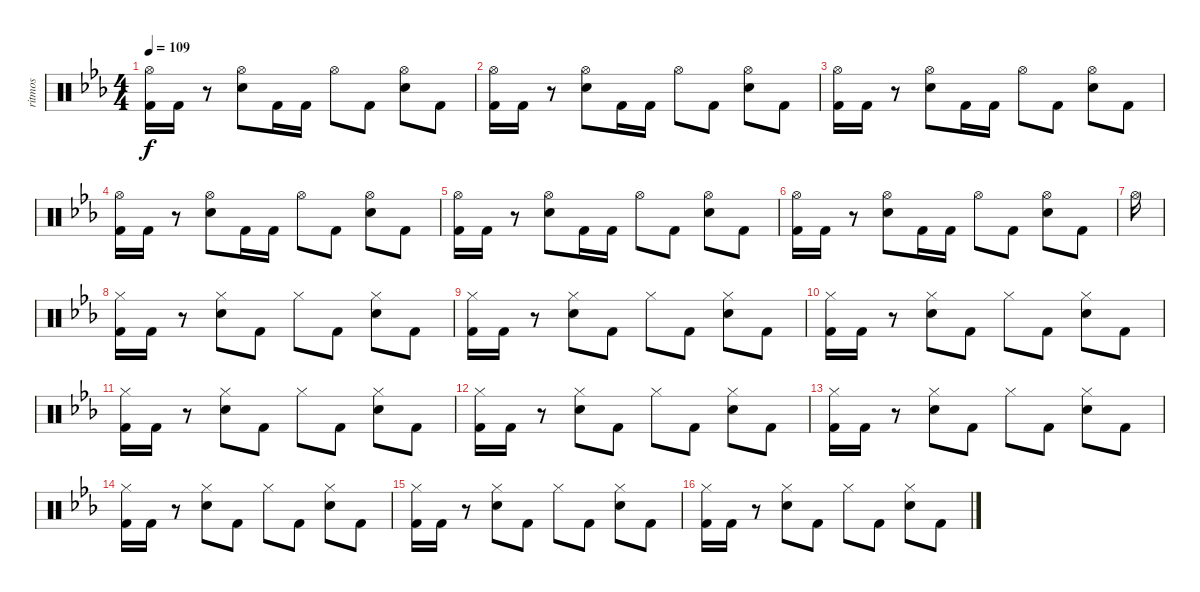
\track ("ritmos" "ritmos") {instrument percussion}
\staff {score}
\articulation defaults
\ts (4 4)
\tempo 109
\clef neutral
\ks eb
("Hi-Hat (open)" "Kick (hit) 2").16{dy f} "Kick (hit) 2".16 r.8 ("Hi-Hat (open)" "Electric Snare (hit)").8 "Kick (hit) 2".16 "Kick (hit) 2".16 "Hi-Hat (open)".8 "Kick (hit) 2".8 ("Hi-Hat (open)" "Electric Snare (hit)").8 "Kick (hit) 2".8 |
("Hi-Hat (open)" "Kick (hit) 2").16 "Kick (hit) 2".16 r.8 ("Hi-Hat (open)" "Electric Snare (hit)").8 "Kick (hit) 2".16 "Kick (hit) 2".16 "Hi-Hat (open)".8 "Kick (hit) 2".8 ("Hi-Hat (open)" "Electric Snare (hit)").8 "Kick (hit) 2".8 |
("Hi-Hat (open)" "Kick (hit) 2").16 "Kick (hit) 2".16 r.8 ("Hi-Hat (open)" "Electric Snare (hit)").8 "Kick (hit) 2".16 "Kick (hit) 2".16 "Hi-Hat (open)".8 "Kick (hit) 2".8 ("Hi-Hat (open)" "Electric Snare (hit)").8 "Kick (hit) 2".8 |
("Hi-Hat (open)" "Kick (hit) 2").16 "Kick (hit) 2".16 r.8 ("Hi-Hat (open)" "Electric Snare (hit)").8 "Kick (hit) 2".16 "Kick (hit) 2".16 "Hi-Hat (open)".8 "Kick (hit) 2".8 ("Hi-Hat (open)" "Electric Snare (hit)").8 "Kick (hit) 2".8 |
("Hi-Hat (open)" "Kick (hit) 2").16 "Kick (hit) 2".16 r.8 ("Hi-Hat (open)" "Electric Snare (hit)").8 "Kick (hit) 2".16 "Kick (hit) 2".16 "Hi-Hat (open)".8 "Kick (hit) 2".8 ("Hi-Hat (open)" "Electric Snare (hit)").8 "Kick (hit) 2".8 |
("Hi-Hat (open)" "Kick (hit) 2").16 "Kick (hit) 2".16 r.8 ("Hi-Hat (open)" "Electric Snare (hit)").8 "Kick (hit) 2".16 "Kick (hit) 2".16 "Hi-Hat (open)".8 "Kick (hit) 2".8 ("Hi-Hat (open)" "Electric Snare (hit)").8 "Kick (hit) 2".8 |
"Hi-Hat (open)".16 |
("Hi-Hat (closed)" "Kick (hit) 2").16 "Kick (hit) 2".16 r.8 ("Hi-Hat (closed)" "Electric Snare (hit)").8 "Kick (hit) 2".8 "Hi-Hat (closed)".8 "Kick (hit) 2".8 ("Hi-Hat (closed)" "Electric Snare (hit)").8 "Kick (hit) 2".8 |
("Hi-Hat (closed)" "Kick (hit) 2").16 "Kick (hit) 2".16 r.8 ("Hi-Hat (closed)" "Electric Snare (hit)").8 "Kick (hit) 2".8 "Hi-Hat (closed)".8 "Kick (hit) 2".8 ("Hi-Hat (closed)" "Electric Snare (hit)").8 "Kick (hit) 2".8 |
("Hi-Hat (closed)" "Kick (hit) 2").16 "Kick (hit) 2".16 r.8 ("Hi-Hat (closed)" "Electric Snare (hit)").8 "Kick (hit) 2".8 "Hi-Hat (closed)".8 "Kick (hit) 2".8 ("Hi-Hat (closed)" "Electric Snare (hit)").8 "Kick (hit) 2".8 |
("Hi-Hat (closed)" "Kick (hit) 2").16 "Kick (hit) 2".16 r.8 ("Hi-Hat (closed)" "Electric Snare (hit)").8 "Kick (hit) 2".8 "Hi-Hat (closed)".8 "Kick (hit) 2".8 ("Hi-Hat (closed)" "Electric Snare (hit)").8 "Kick (hit) 2".8 |
("Hi-Hat (closed)" "Kick (hit) 2").16 "Kick (hit) 2".16 r.8 ("Hi-Hat (closed)" "Electric Snare (hit)").8 "Kick (hit) 2".8 "Hi-Hat (closed)".8 "Kick (hit) 2".8 ("Hi-Hat (closed)" "Electric Snare (hit)").8 "Kick (hit) 2".8 |
("Hi-Hat (closed)" "Kick (hit) 2").16 "Kick (hit) 2".16 r.8 ("Hi-Hat (closed)" "Electric Snare (hit)").8 "Kick (hit) 2".8 "Hi-Hat (closed)".8 "Kick (hit) 2".8 ("Hi-Hat (closed)" "Electric Snare (hit)").8 "Kick (hit) 2".8 |
("Hi-Hat (closed)" "Kick (hit) 2").16 "Kick (hit) 2".16 r.8 ("Hi-Hat (closed)" "Electric Snare (hit)").8 "Kick (hit) 2".8 "Hi-Hat (closed)".8 "Kick (hit) 2".8 ("Hi-Hat (closed)" "Electric Snare (hit)").8 "Kick (hit) 2".8 |
("Hi-Hat (closed)" "Kick (hit) 2").16 "Kick (hit) 2".16 r.8 ("Hi-Hat (closed)" "Electric Snare (hit)").8 "Kick (hit) 2".8 "Hi-Hat (closed)".8 "Kick (hit) 2".8 ("Hi-Hat (closed)" "Electric Snare (hit)").8 "Kick (hit) 2".8 |
("Hi-Hat (closed)" "Kick (hit) 2").16 "Kick (hit) 2".16 r.8 ("Hi-Hat (closed)" "Electric Snare (hit)").8 "Kick (hit) 2".8 "Hi-Hat (closed)".8 "Kick (hit) 2".8 ("Hi-Hat (closed)" "Electric Snare (hit)").8 "Kick (hit) 2".8
